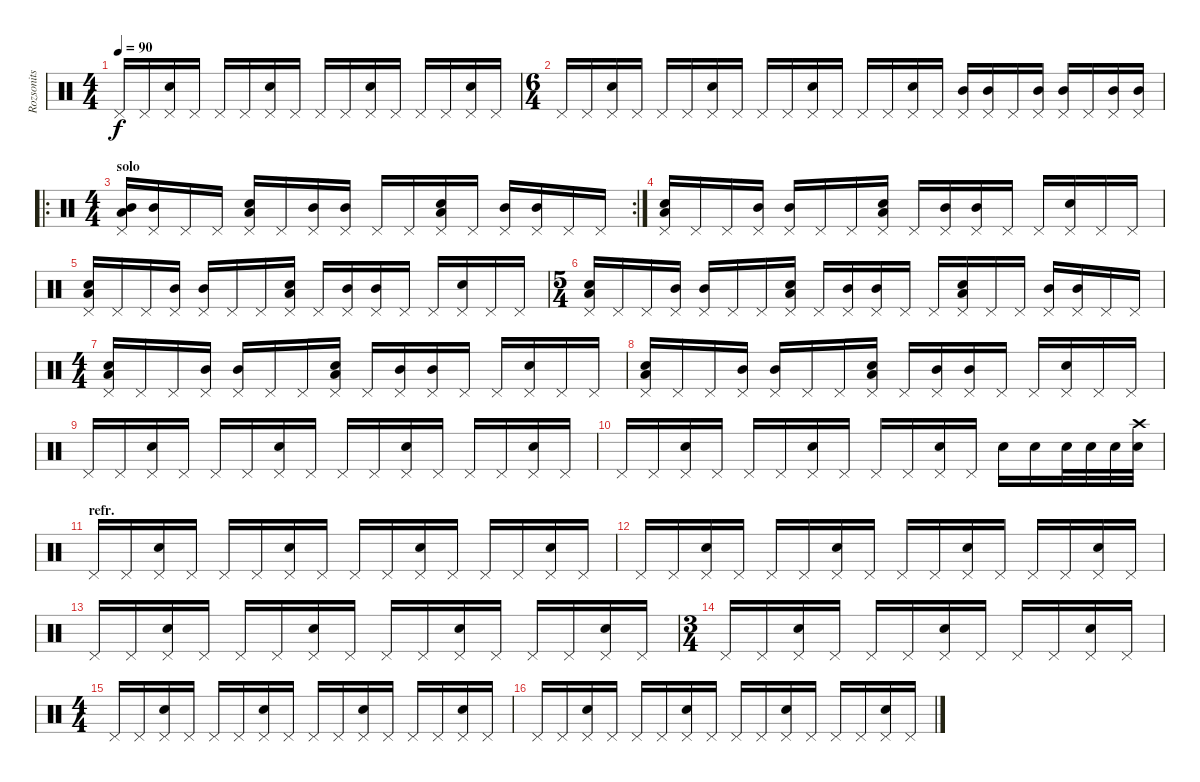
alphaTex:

\track ("Rozsonits T. dobok" "Rozsonits ") {instrument percussion}
\staff {score}
\articulation defaults
\ts (4 4)
\tempo 90
\clef neutral
\ks c "Pedal Hi-Hat (hit)".16{dy f} "Pedal Hi-Hat (hit)".16
("Pedal Hi-Hat (hit)" "Snare (hit) 2").16 "Pedal Hi-Hat (hit)".16 "Pedal Hi-Hat (hit)".16 "Pedal Hi-Hat (hit)".16 ("Pedal Hi-Hat (hit)" "Snare (hit) 2").16 "Pedal Hi-Hat (hit)".16 "Pedal Hi-Hat (hit)".16 "Pedal Hi-Hat (hit)".16 ("Pedal Hi-Hat (hit)" "Snare (hit) 2").16 "Pedal Hi-Hat (hit)".16 "Pedal Hi-Hat (hit)".16 "Pedal Hi-Hat (hit)".16 ("Pedal Hi-Hat (hit)" "Snare (hit) 2").16 "Pedal Hi-Hat (hit)".16 |
\ts (6 4)
"Pedal Hi-Hat (hit)".16 "Pedal Hi-Hat (hit)".16 ("Pedal Hi-Hat (hit)" "Snare (hit) 2").16 "Pedal Hi-Hat (hit)".16 "Pedal Hi-Hat (hit)".16 "Pedal Hi-Hat (hit)".16 ("Pedal Hi-Hat (hit)" "Snare (hit) 2").16 "Pedal Hi-Hat (hit)".16 "Pedal Hi-Hat (hit)".16 "Pedal Hi-Hat (hit)".16 ("Pedal Hi-Hat (hit)" "Snare (hit) 2").16 "Pedal Hi-Hat (hit)".16 "Pedal Hi-Hat (hit)".16 "Pedal Hi-Hat (hit)".16 ("Pedal Hi-Hat (hit)" "Snare (hit) 2").16 "Pedal Hi-Hat (hit)".16 ("Pedal Hi-Hat (hit)" "Mid Tom (hit)").16 ("Pedal Hi-Hat (hit)" "Mid Tom (hit)").16 "Pedal Hi-Hat (hit)".16 ("Pedal Hi-Hat (hit)" "Mid Tom (hit)").16 ("Pedal Hi-Hat (hit)" "Mid Tom (hit)").16 "Pedal Hi-Hat (hit)".16 ("Pedal Hi-Hat (hit)" "Mid Tom (hit)").16 ("Pedal Hi-Hat (hit)" "Mid Tom (hit)").16 |
\ro
\rc 2
\ts (4 4)
\section ("" "solo")
("Pedal Hi-Hat (hit)" "Mid Tom (hit)" "Low Floor Tom (hit)").16 ("Pedal Hi-Hat (hit)" "Mid Tom (hit)").16 "Pedal Hi-Hat (hit)".16 "Pedal Hi-Hat (hit)".16 ("Pedal Hi-Hat (hit)" "Snare (hit) 2" "Low Floor Tom (hit)").16 "Pedal Hi-Hat (hit)".16 ("Pedal Hi-Hat (hit)" "Mid Tom (hit)").16 ("Pedal Hi-Hat (hit)" "Mid Tom (hit)").16 "Pedal Hi-Hat (hit)".16 "Pedal Hi-Hat (hit)".16 ("Pedal Hi-Hat (hit)" "Snare (hit) 2" "Low Floor Tom (hit)").16 "Pedal Hi-Hat (hit)".16 ("Pedal Hi-Hat (hit)" "Mid Tom (hit)").16 ("Pedal Hi-Hat (hit)" "Mid Tom (hit)").16 "Pedal Hi-Hat (hit)".16 "Pedal Hi-Hat (hit)".16 |
("Pedal Hi-Hat (hit)" "Snare (hit) 2" "Low Floor Tom (hit)").16 "Pedal Hi-Hat (hit)".16 "Pedal Hi-Hat (hit)".16 ("Pedal Hi-Hat (hit)" "Mid Tom (hit)").16 ("Pedal Hi-Hat (hit)" "Mid Tom (hit)").16 "Pedal Hi-Hat (hit)".16 "Pedal Hi-Hat (hit)".16 ("Pedal Hi-Hat (hit)" "Snare (hit) 2" "Low Floor Tom (hit)").16 "Pedal Hi-Hat (hit)".16 ("Pedal Hi-Hat (hit)" "Mid Tom (hit)").16 ("Pedal Hi-Hat (hit)" "Mid Tom (hit)").16 "Pedal Hi-Hat (hit)".16 "Pedal Hi-Hat (hit)".16 ("Pedal Hi-Hat (hit)" "Snare (hit) 2").16 "Pedal Hi-Hat (hit)".16 "Pedal Hi-Hat (hit)".16 |
("Pedal Hi-Hat (hit)" "Snare (hit) 2" "Low Floor Tom (hit)").16 "Pedal Hi-Hat (hit)".16 "Pedal Hi-Hat (hit)".16 ("Pedal Hi-Hat (hit)" "Mid Tom (hit)").16 ("Pedal Hi-Hat (hit)" "Mid Tom (hit)").16 "Pedal Hi-Hat (hit)".16 "Pedal Hi-Hat (hit)".16 ("Pedal Hi-Hat (hit)" "Snare (hit) 2" "Low Floor Tom (hit)").16 "Pedal Hi-Hat (hit)".16 ("Pedal Hi-Hat (hit)" "Mid Tom (hit)").16 ("Pedal Hi-Hat (hit)" "Mid Tom (hit)").16 "Pedal Hi-Hat (hit)".16 "Pedal Hi-Hat (hit)".16 ("Pedal Hi-Hat (hit)" "Snare (hit) 2").16 "Pedal Hi-Hat (hit)".16 "Pedal Hi-Hat (hit)".16 |
\ts (5 4)
("Pedal Hi-Hat (hit)" "Snare (hit) 2" "Low Floor Tom (hit)").16 "Pedal Hi-Hat (hit)".16 "Pedal Hi-Hat (hit)".16 ("Pedal Hi-Hat (hit)" "Mid Tom (hit)").16 ("Pedal Hi-Hat (hit)" "Mid Tom (hit)").16 "Pedal Hi-Hat (hit)".16 "Pedal Hi-Hat (hit)".16 ("Pedal Hi-Hat (hit)" "Snare (hit) 2" "Low Floor Tom (hit)").16 "Pedal Hi-Hat (hit)".16 ("Pedal Hi-Hat (hit)" "Mid Tom (hit)").16 ("Pedal Hi-Hat (hit)" "Mid Tom (hit)").16 "Pedal Hi-Hat (hit)".16 "Pedal Hi-Hat (hit)".16 ("Pedal Hi-Hat (hit)" "Snare (hit) 2" "Low Floor Tom (hit)").16 "Pedal Hi-Hat (hit)".16 "Pedal Hi-Hat (hit)".16 ("Pedal Hi-Hat (hit)" "Mid Tom (hit)").16 ("Pedal Hi-Hat (hit)" "Mid Tom (hit)").16 "Pedal Hi-Hat (hit)".16 "Pedal Hi-Hat (hit)".16 |
\ts (4 4)
("Pedal Hi-Hat (hit)" "Snare (hit) 2" "Low Floor Tom (hit)").16 "Pedal Hi-Hat (hit)".16 "Pedal Hi-Hat (hit)".16 ("Pedal Hi-Hat (hit)" "Mid Tom (hit)").16 ("Pedal Hi-Hat (hit)" "Mid Tom (hit)").16 "Pedal Hi-Hat (hit)".16 "Pedal Hi-Hat (hit)".16 ("Pedal Hi-Hat (hit)" "Snare (hit) 2" "Low Floor Tom (hit)").16 "Pedal Hi-Hat (hit)".16 ("Pedal Hi-Hat (hit)" "Mid Tom (hit)").16 ("Pedal Hi-Hat (hit)" "Mid Tom (hit)").16 "Pedal Hi-Hat (hit)".16 "Pedal Hi-Hat (hit)".16 ("Pedal Hi-Hat (hit)" "Snare (hit) 2").16 "Pedal Hi-Hat (hit)".16 "Pedal Hi-Hat (hit)".16 |
("Pedal Hi-Hat (hit)" "Snare (hit) 2" "Low Floor Tom (hit)").16 "Pedal Hi-Hat (hit)".16 "Pedal Hi-Hat (hit)".16 ("Pedal Hi-Hat (hit)" "Mid Tom (hit)").16 ("Pedal Hi-Hat (hit)" "Mid Tom (hit)").16 "Pedal Hi-Hat (hit)".16 "Pedal Hi-Hat (hit)".16 ("Pedal Hi-Hat (hit)" "Snare (hit) 2" "Low Floor Tom (hit)").16 "Pedal Hi-Hat (hit)".16 ("Pedal Hi-Hat (hit)" "Mid Tom (hit)").16 ("Pedal Hi-Hat (hit)" "Mid Tom (hit)").16 "Pedal Hi-Hat (hit)".16 "Pedal Hi-Hat (hit)".16 ("Pedal Hi-Hat (hit)" "Snare (hit) 2").16 "Pedal Hi-Hat (hit)".16 "Pedal Hi-Hat (hit)".16 |
"Pedal Hi-Hat (hit)".16 "Pedal Hi-Hat (hit)".16 ("Pedal Hi-Hat (hit)" "Snare (hit) 2").16 "Pedal Hi-Hat (hit)".16 "Pedal Hi-Hat (hit)".16 "Pedal Hi-Hat (hit)".16 ("Pedal Hi-Hat (hit)" "Snare (hit) 2").16 "Pedal Hi-Hat (hit)".16 "Pedal Hi-Hat (hit)".16 "Pedal Hi-Hat (hit)".16 ("Pedal Hi-Hat (hit)" "Snare (hit) 2").16 "Pedal Hi-Hat (hit)".16 "Pedal Hi-Hat (hit)".16 "Pedal Hi-Hat (hit)".16 ("Pedal Hi-Hat (hit)" "Snare (hit) 2").16 "Pedal Hi-Hat (hit)".16 |
"Pedal Hi-Hat (hit)".16 "Pedal Hi-Hat (hit)".16 ("Pedal Hi-Hat (hit)" "Snare (hit) 2").16 "Pedal Hi-Hat (hit)".16 "Pedal Hi-Hat (hit)".16 "Pedal Hi-Hat (hit)".16 ("Pedal Hi-Hat (hit)" "Snare (hit) 2").16 "Pedal Hi-Hat (hit)".16 "Pedal Hi-Hat (hit)".16 "Pedal Hi-Hat (hit)".16 ("Pedal Hi-Hat (hit)" "Snare (hit) 2").16 "Pedal Hi-Hat (hit)".16 "Snare (hit) 2".16 "Snare (hit) 2".16 "Snare (hit) 2".32 "Snare (hit) 2".32 "Snare (hit) 2".32 ("Crash high (hit)" "Snare (hit) 2").32 |
\section ("" "refr.")
"Pedal Hi-Hat (hit)".16 "Pedal Hi-Hat (hit)".16 ("Pedal Hi-Hat (hit)" "Snare (hit) 2").16 "Pedal Hi-Hat (hit)".16 "Pedal Hi-Hat (hit)".16 "Pedal Hi-Hat (hit)".16 ("Pedal Hi-Hat (hit)" "Snare (hit) 2").16 "Pedal Hi-Hat (hit)".16 "Pedal Hi-Hat (hit)".16 "Pedal Hi-Hat (hit)".16 ("Pedal Hi-Hat (hit)" "Snare (hit) 2").16 "Pedal Hi-Hat (hit)".16 "Pedal Hi-Hat (hit)".16 "Pedal Hi-Hat (hit)".16 ("Pedal Hi-Hat (hit)" "Snare (hit) 2").16 "Pedal Hi-Hat (hit)".16 |
"Pedal Hi-Hat (hit)".16 "Pedal Hi-Hat (hit)".16 ("Pedal Hi-Hat (hit)" "Snare (hit) 2").16 "Pedal Hi-Hat (hit)".16 "Pedal Hi-Hat (hit)".16 "Pedal Hi-Hat (hit)".16 ("Pedal Hi-Hat (hit)" "Snare (hit) 2").16 "Pedal Hi-Hat (hit)".16 "Pedal Hi-Hat (hit)".16 "Pedal Hi-Hat (hit)".16 ("Pedal Hi-Hat (hit)" "Snare (hit) 2").16 "Pedal Hi-Hat (hit)".16 "Pedal Hi-Hat (hit)".16 "Pedal Hi-Hat (hit)".16 ("Pedal Hi-Hat (hit)" "Snare (hit) 2").16 "Pedal Hi-Hat (hit)".16 |
"Pedal Hi-Hat (hit)".16 "Pedal Hi-Hat (hit)".16 ("Pedal Hi-Hat (hit)" "Snare (hit) 2").16 "Pedal Hi-Hat (hit)".16 "Pedal Hi-Hat (hit)".16 "Pedal Hi-Hat (hit)".16 ("Pedal Hi-Hat (hit)" "Snare (hit) 2").16 "Pedal Hi-Hat (hit)".16 "Pedal Hi-Hat (hit)".16 "Pedal Hi-Hat (hit)".16 ("Pedal Hi-Hat (hit)" "Snare (hit) 2").16 "Pedal Hi-Hat (hit)".16 "Pedal Hi-Hat (hit)".16 "Pedal Hi-Hat (hit)".16 ("Pedal Hi-Hat (hit)" "Snare (hit) 2").16 "Pedal Hi-Hat (hit)".16 |
\ts (3 4)
"Pedal Hi-Hat (hit)".16 "Pedal Hi-Hat (hit)".16 ("Pedal Hi-Hat (hit)" "Snare (hit) 2").16 "Pedal Hi-Hat (hit)".16 "Pedal Hi-Hat (hit)".16 "Pedal Hi-Hat (hit)".16 ("Pedal Hi-Hat (hit)" "Snare (hit) 2").16 "Pedal Hi-Hat (hit)".16 "Pedal Hi-Hat (hit)".16 "Pedal Hi-Hat (hit)".16 ("Pedal Hi-Hat (hit)" "Snare (hit) 2").16 "Pedal Hi-Hat (hit)".16 |
\ts (4 4)
"Pedal Hi-Hat (hit)".16 "Pedal Hi-Hat (hit)".16 ("Pedal Hi-Hat (hit)" "Snare (hit) 2").16 "Pedal Hi-Hat (hit)".16 "Pedal Hi-Hat (hit)".16 "Pedal Hi-Hat (hit)".16 ("Pedal Hi-Hat (hit)" "Snare (hit) 2").16 "Pedal Hi-Hat (hit)".16 "Pedal Hi-Hat (hit)".16 "Pedal Hi-Hat (hit)".16 ("Pedal Hi-Hat (hit)" "Snare (hit) 2").16 "Pedal Hi-Hat (hit)".16 "Pedal Hi-Hat (hit)".16 "Pedal Hi-Hat (hit)".16 ("Pedal Hi-Hat (hit)" "Snare (hit) 2").16 "Pedal Hi-Hat (hit)".16 |
"Pedal Hi-Hat (hit)".16 "Pedal Hi-Hat (hit)".16 ("Pedal Hi-Hat (hit)" "Snare (hit) 2").16 "Pedal Hi-Hat (hit)".16 "Pedal Hi-Hat (hit)".16 "Pedal Hi-Hat (hit)".16 ("Pedal Hi-Hat (hit)" "Snare (hit) 2").16 "Pedal Hi-Hat (hit)".16 "Pedal Hi-Hat (hit)".16 "Pedal Hi-Hat (hit)".16 ("Pedal Hi-Hat (hit)" "Snare (hit) 2").16 "Pedal Hi-Hat (hit)".16 "Pedal Hi-Hat (hit)".16 "Pedal Hi-Hat (hit)".16 ("Pedal Hi-Hat (hit)" "Snare (hit) 2").16 "Pedal Hi-Hat (hit)".16
